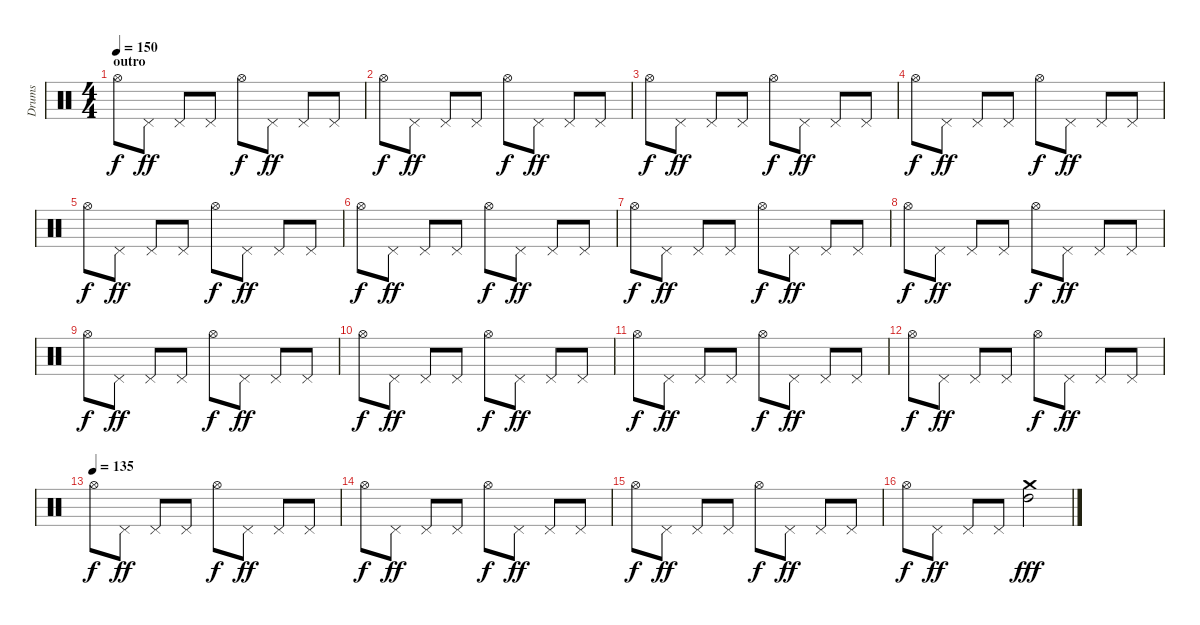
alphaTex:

\track ("Drums" "Drums") {instrument percussion}
\staff {score}
\articulation defaults
\ts (4 4)
\section ("" "outro")
\tempo 150
\clef neutral
\ks c "Hi-Hat (open)".8{dy f} "Pedal Hi-Hat (hit)".8{dy ff} "Pedal Hi-Hat (hit)".8 "Pedal Hi-Hat (hit)".8 "Hi-Hat (open)".8{dy f} "Pedal Hi-Hat (hit)".8{dy ff} "Pedal Hi-Hat (hit)".8 "Pedal Hi-Hat (hit)".8
|
"Hi-Hat (open)".8{dy f} "Pedal Hi-Hat (hit)".8{dy ff} "Pedal Hi-Hat (hit)".8 "Pedal Hi-Hat (hit)".8 "Hi-Hat (open)".8{dy f} "Pedal Hi-Hat (hit)".8{dy ff} "Pedal Hi-Hat (hit)".8 "Pedal Hi-Hat (hit)".8 |
"Hi-Hat (open)".8{dy f} "Pedal Hi-Hat (hit)".8{dy ff} "Pedal Hi-Hat (hit)".8 "Pedal Hi-Hat (hit)".8 "Hi-Hat (open)".8{dy f} "Pedal Hi-Hat (hit)".8{dy ff} "Pedal Hi-Hat (hit)".8 "Pedal Hi-Hat (hit)".8 |
"Hi-Hat (open)".8{dy f} "Pedal Hi-Hat (hit)".8{dy ff} "Pedal Hi-Hat (hit)".8 "Pedal Hi-Hat (hit)".8 "Hi-Hat (open)".8{dy f} "Pedal Hi-Hat (hit)".8{dy ff} "Pedal Hi-Hat (hit)".8 "Pedal Hi-Hat (hit)".8 |
"Hi-Hat (open)".8{dy f} "Pedal Hi-Hat (hit)".8{dy ff} "Pedal Hi-Hat (hit)".8 "Pedal Hi-Hat (hit)".8 "Hi-Hat (open)".8{dy f} "Pedal Hi-Hat (hit)".8{dy ff} "Pedal Hi-Hat (hit)".8 "Pedal Hi-Hat (hit)".8 |
"Hi-Hat (open)".8{dy f} "Pedal Hi-Hat (hit)".8{dy ff} "Pedal Hi-Hat (hit)".8 "Pedal Hi-Hat (hit)".8 "Hi-Hat (open)".8{dy f} "Pedal Hi-Hat (hit)".8{dy ff} "Pedal Hi-Hat (hit)".8 "Pedal Hi-Hat (hit)".8 |
"Hi-Hat (open)".8{dy f} "Pedal Hi-Hat (hit)".8{dy ff} "Pedal Hi-Hat (hit)".8 "Pedal Hi-Hat (hit)".8 "Hi-Hat (open)".8{dy f} "Pedal Hi-Hat (hit)".8{dy ff} "Pedal Hi-Hat (hit)".8 "Pedal Hi-Hat (hit)".8 |
"Hi-Hat (open)".8{dy f} "Pedal Hi-Hat (hit)".8{dy ff} "Pedal Hi-Hat (hit)".8 "Pedal Hi-Hat (hit)".8 "Hi-Hat (open)".8{dy f} "Pedal Hi-Hat (hit)".8{dy ff} "Pedal Hi-Hat (hit)".8 "Pedal Hi-Hat (hit)".8 |
"Hi-Hat (open)".8{dy f} "Pedal Hi-Hat (hit)".8{dy ff} "Pedal Hi-Hat (hit)".8 "Pedal Hi-Hat (hit)".8 "Hi-Hat (open)".8{dy f} "Pedal Hi-Hat (hit)".8{dy ff} "Pedal Hi-Hat (hit)".8 "Pedal Hi-Hat (hit)".8 |
"Hi-Hat (open)".8{dy f} "Pedal Hi-Hat (hit)".8{dy ff} "Pedal Hi-Hat (hit)".8 "Pedal Hi-Hat (hit)".8 "Hi-Hat (open)".8{dy f} "Pedal Hi-Hat (hit)".8{dy ff} "Pedal Hi-Hat (hit)".8 "Pedal Hi-Hat (hit)".8 |
"Hi-Hat (open)".8{dy f} "Pedal Hi-Hat (hit)".8{dy ff} "Pedal Hi-Hat (hit)".8 "Pedal Hi-Hat (hit)".8 "Hi-Hat (open)".8{dy f} "Pedal Hi-Hat (hit)".8{dy ff} "Pedal Hi-Hat (hit)".8 "Pedal Hi-Hat (hit)".8 |
"Hi-Hat (open)".8{dy f} "Pedal Hi-Hat (hit)".8{dy ff} "Pedal Hi-Hat (hit)".8 "Pedal Hi-Hat (hit)".8 "Hi-Hat (open)".8{dy f} "Pedal Hi-Hat (hit)".8{dy ff} "Pedal Hi-Hat (hit)".8 "Pedal Hi-Hat (hit)".8 |
\tempo (135)
"Hi-Hat (open)".8{dy f} "Pedal Hi-Hat (hit)".8{dy ff} "Pedal Hi-Hat (hit)".8 "Pedal Hi-Hat (hit)".8 "Hi-Hat (open)".8{dy f} "Pedal Hi-Hat (hit)".8{dy ff} "Pedal Hi-Hat (hit)".8 "Pedal Hi-Hat (hit)".8 |
"Hi-Hat (open)".8{dy f} "Pedal Hi-Hat (hit)".8{dy ff} "Pedal Hi-Hat (hit)".8 "Pedal Hi-Hat (hit)".8 "Hi-Hat (open)".8{dy f} "Pedal Hi-Hat (hit)".8{dy ff} "Pedal Hi-Hat (hit)".8 "Pedal Hi-Hat (hit)".8 |
"Hi-Hat (open)".8{dy f} "Pedal Hi-Hat (hit)".8{dy ff} "Pedal Hi-Hat (hit)".8 "Pedal Hi-Hat (hit)".8 "Hi-Hat (open)".8{dy f} "Pedal Hi-Hat (hit)".8{dy ff} "Pedal Hi-Hat (hit)".8 "Pedal Hi-Hat (hit)".8 |
"Hi-Hat (open)".8{dy f} "Pedal Hi-Hat (hit)".8{dy ff} "Pedal Hi-Hat (hit)".8 "Pedal Hi-Hat (hit)".8 ("High Tom (hit)" "Crash medium (hit)").2{dy fff}
